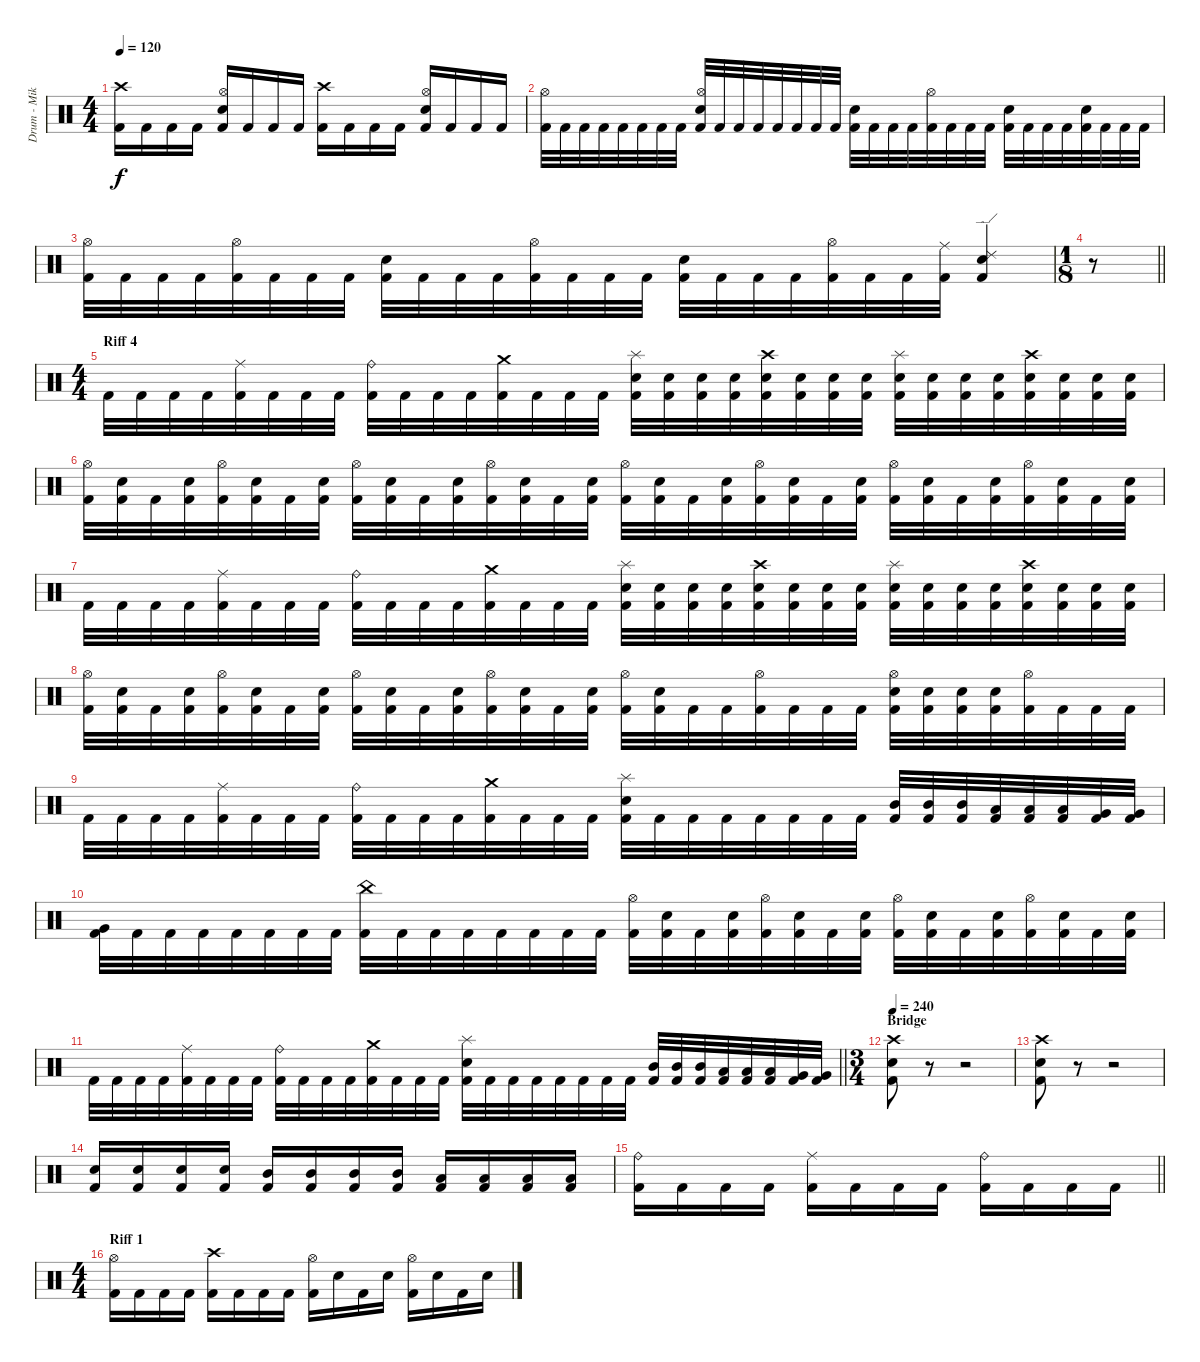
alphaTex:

\track ("Drum - Mike Collins" "Drum - Mik") {instrument percussion}
\staff {score}
\articulation defaults
\ts (4 4)
\tempo 120
\clef neutral
\ks c
("Crash high (hit)" "Kick (hit) 2").16{dy f} "Kick (hit) 2".16 "Kick (hit) 2".16 "Kick (hit) 2".16 ("Hi-Hat (open)" "Electric Snare (hit)" "Kick (hit) 2").16 "Kick (hit) 2".16 "Kick (hit) 2".16 "Kick (hit) 2".16 ("Crash high (hit)" "Kick (hit) 2").16 "Kick (hit) 2".16 "Kick (hit) 2".16 "Kick (hit) 2".16 ("Hi-Hat (open)" "Electric Snare (hit)" "Kick (hit) 2").16 "Kick (hit) 2".16 "Kick (hit) 2".16 "Kick (hit) 2".16 |
("Hi-Hat (open)" "Kick (hit) 2").32 "Kick (hit) 2".32 "Kick (hit) 2".32 "Kick (hit) 2".32 "Kick (hit) 2".32 "Kick (hit) 2".32 "Kick (hit) 2".32 "Kick (hit) 2".32 ("Hi-Hat (open)" "Electric Snare (hit)" "Kick (hit) 2").32 "Kick (hit) 2".32 "Kick (hit) 2".32 "Kick (hit) 2".32 "Kick (hit) 2".32 "Kick (hit) 2".32 "Kick (hit) 2".32 "Kick (hit) 2".32 ("Electric Snare (hit)" "Kick (hit) 2").32 "Kick (hit) 2".32 "Kick (hit) 2".32 "Kick (hit) 2".32 ("Hi-Hat (open)" "Kick (hit) 2").32 "Kick (hit) 2".32 "Kick (hit) 2".32 "Kick (hit) 2".32 ("Electric Snare (hit)" "Kick (hit) 2").32{beam Down} "Kick (hit) 2".32{beam Down} "Kick (hit) 2".32{beam Down} "Kick (hit) 2".32{beam Down} ("Electric Snare (hit)" "Kick (hit) 2").32{beam Down} "Kick (hit) 2".32{beam Down} "Kick (hit) 2".32{beam Down} "Kick (hit) 2".32{beam Down} |
("Hi-Hat (open)" "Kick (hit) 2").32 "Kick (hit) 2".32 "Kick (hit) 2".32 "Kick (hit) 2".32 ("Hi-Hat (open)" "Kick (hit) 2").32 "Kick (hit) 2".32 "Kick (hit) 2".32 "Kick (hit) 2".32 ("Electric Snare (hit)" "Kick (hit) 2").32 "Kick (hit) 2".32 "Kick (hit) 2".32 "Kick (hit) 2".32 ("Hi-Hat (open)" "Kick (hit) 2").32 "Kick (hit) 2".32 "Kick (hit) 2".32 "Kick (hit) 2".32 ("Electric Snare (hit)" "Kick (hit) 2").32 "Kick (hit) 2".32 "Kick (hit) 2".32 "Kick (hit) 2".32 ("Hi-Hat (open)" "Kick (hit) 2").32 "Kick (hit) 2".32 "Kick (hit) 2".32 ("Ride (middle)" "Kick (hit) 2").32 ("Ride (edge) 2" "Electric Snare (hit)" "Kick (hit) 2").4 |
\ts (1 8)
\barLineRight lightlight
r.8 |
\ts (4 4)
\section ("" "Riff 4")
"Kick (hit) 2".32 "Kick (hit) 2".32 "Kick (hit) 2".32 "Kick (hit) 2".32 ("Ride (middle)" "Kick (hit) 2").32 "Kick (hit) 2".32 "Kick (hit) 2".32 "Kick (hit) 2".32 ("Ride (bell)" "Kick (hit) 2").32 "Kick (hit) 2".32 "Kick (hit) 2".32 "Kick (hit) 2".32 ("Crash medium (hit)" "Kick (hit) 2").32 "Kick (hit) 2".32 "Kick (hit) 2".32 "Kick (hit) 2".32 ("Splash (hit)" "Electric Snare (hit)" "Kick (hit) 2").32 ("Electric Snare (hit)" "Kick (hit) 2").32 ("Electric Snare (hit)" "Kick (hit) 2").32 ("Electric Snare (hit)" "Kick (hit) 2").32 ("Crash high (hit)" "Electric Snare (hit)" "Kick (hit) 2").32 ("Electric Snare (hit)" "Kick (hit) 2").32 ("Electric Snare (hit)" "Kick (hit) 2").32 ("Electric Snare (hit)" "Kick (hit) 2").32 ("Splash (hit)" "Electric Snare (hit)" "Kick (hit) 2").32 ("Electric Snare (hit)" "Kick (hit) 2").32 ("Electric Snare (hit)" "Kick (hit) 2").32 ("Electric Snare (hit)" "Kick (hit) 2").32 ("Crash high (hit)" "Electric Snare (hit)" "Kick (hit) 2").32 ("Electric Snare (hit)" "Kick (hit) 2").32 ("Electric Snare (hit)" "Kick (hit) 2").32 ("Electric Snare (hit)" "Kick (hit) 2").32 |
("Hi-Hat (open)" "Kick (hit) 2").32 ("Electric Snare (hit)" "Kick (hit) 2").32 "Kick (hit) 2".32 ("Electric Snare (hit)" "Kick (hit) 2").32 ("Hi-Hat (open)" "Kick (hit) 2").32 ("Electric Snare (hit)" "Kick (hit) 2").32 "Kick (hit) 2".32 ("Electric Snare (hit)" "Kick (hit) 2").32 ("Hi-Hat (open)" "Kick (hit) 2").32 ("Electric Snare (hit)" "Kick (hit) 2").32 "Kick (hit) 2".32 ("Electric Snare (hit)" "Kick (hit) 2").32 ("Hi-Hat (open)" "Kick (hit) 2").32 ("Electric Snare (hit)" "Kick (hit) 2").32 "Kick (hit) 2".32 ("Electric Snare (hit)" "Kick (hit) 2").32 ("Hi-Hat (open)" "Kick (hit) 2").32 ("Electric Snare (hit)" "Kick (hit) 2").32 "Kick (hit) 2".32 ("Electric Snare (hit)" "Kick (hit) 2").32 ("Hi-Hat (open)" "Kick (hit) 2").32 ("Electric Snare (hit)" "Kick (hit) 2").32 "Kick (hit) 2".32 ("Electric Snare (hit)" "Kick (hit) 2").32 ("Hi-Hat (open)" "Kick (hit) 2").32 ("Electric Snare (hit)" "Kick (hit) 2").32 "Kick (hit) 2".32 ("Electric Snare (hit)" "Kick (hit) 2").32 ("Hi-Hat (open)" "Kick (hit) 2").32 ("Electric Snare (hit)" "Kick (hit) 2").32 "Kick (hit) 2".32 ("Electric Snare (hit)" "Kick (hit) 2").32 |
"Kick (hit) 2".32 "Kick (hit) 2".32 "Kick (hit) 2".32 "Kick (hit) 2".32 ("Ride (middle)" "Kick (hit) 2").32 "Kick (hit) 2".32 "Kick (hit) 2".32 "Kick (hit) 2".32 ("Ride (bell)" "Kick (hit) 2").32 "Kick (hit) 2".32 "Kick (hit) 2".32 "Kick (hit) 2".32 ("Crash medium (hit)" "Kick (hit) 2").32 "Kick (hit) 2".32 "Kick (hit) 2".32 "Kick (hit) 2".32 ("Splash (hit)" "Electric Snare (hit)" "Kick (hit) 2").32 ("Electric Snare (hit)" "Kick (hit) 2").32 ("Electric Snare (hit)" "Kick (hit) 2").32 ("Electric Snare (hit)" "Kick (hit) 2").32 ("Crash high (hit)" "Electric Snare (hit)" "Kick (hit) 2").32 ("Electric Snare (hit)" "Kick (hit) 2").32 ("Electric Snare (hit)" "Kick (hit) 2").32 ("Electric Snare (hit)" "Kick (hit) 2").32 ("Splash (hit)" "Electric Snare (hit)" "Kick (hit) 2").32 ("Electric Snare (hit)" "Kick (hit) 2").32 ("Electric Snare (hit)" "Kick (hit) 2").32 ("Electric Snare (hit)" "Kick (hit) 2").32 ("Crash high (hit)" "Electric Snare (hit)" "Kick (hit) 2").32 ("Electric Snare (hit)" "Kick (hit) 2").32 ("Electric Snare (hit)" "Kick (hit) 2").32 ("Electric Snare (hit)" "Kick (hit) 2").32 |
("Hi-Hat (open)" "Kick (hit) 2").32 ("Electric Snare (hit)" "Kick (hit) 2").32 "Kick (hit) 2".32 ("Electric Snare (hit)" "Kick (hit) 2").32 ("Hi-Hat (open)" "Kick (hit) 2").32 ("Electric Snare (hit)" "Kick (hit) 2").32 "Kick (hit) 2".32 ("Electric Snare (hit)" "Kick (hit) 2").32 ("Hi-Hat (open)" "Kick (hit) 2").32 ("Electric Snare (hit)" "Kick (hit) 2").32 "Kick (hit) 2".32 ("Electric Snare (hit)" "Kick (hit) 2").32 ("Hi-Hat (open)" "Kick (hit) 2").32 ("Electric Snare (hit)" "Kick (hit) 2").32 "Kick (hit) 2".32 ("Electric Snare (hit)" "Kick (hit) 2").32 ("Hi-Hat (open)" "Kick (hit) 2").32 ("Electric Snare (hit)" "Kick (hit) 2").32 "Kick (hit) 2".32 "Kick (hit) 2".32 ("Hi-Hat (open)" "Kick (hit) 2").32 "Kick (hit) 2".32 "Kick (hit) 2".32 "Kick (hit) 2".32 ("Hi-Hat (open)" "Electric Snare (hit)" "Kick (hit) 2").32 ("Electric Snare (hit)" "Kick (hit) 2").32 ("Electric Snare (hit)" "Kick (hit) 2").32 ("Electric Snare (hit)" "Kick (hit) 2").32 ("Hi-Hat (open)" "Kick (hit) 2").32 "Kick (hit) 2".32 "Kick (hit) 2".32 "Kick (hit) 2".32 |
"Kick (hit) 2".32 "Kick (hit) 2".32 "Kick (hit) 2".32 "Kick (hit) 2".32 ("Ride (middle)" "Kick (hit) 2").32 "Kick (hit) 2".32 "Kick (hit) 2".32 "Kick (hit) 2".32 ("Ride (bell)" "Kick (hit) 2").32 "Kick (hit) 2".32 "Kick (hit) 2".32 "Kick (hit) 2".32 ("Crash medium (hit)" "Kick (hit) 2").32 "Kick (hit) 2".32 "Kick (hit) 2".32 "Kick (hit) 2".32 ("Splash (hit)" "Electric Snare (hit)" "Kick (hit) 2").32{beam Down} "Kick (hit) 2".32{beam Down} "Kick (hit) 2".32{beam Down} "Kick (hit) 2".32{beam Down} "Kick (hit) 2".32{beam Down} "Kick (hit) 2".32{beam Down} "Kick (hit) 2".32{beam Down} "Kick (hit) 2".32{beam Down} ("Mid Tom (hit)" "Kick (hit) 2").32 ("Mid Tom (hit)" "Kick (hit) 2").32 ("Mid Tom (hit)" "Kick (hit) 2").32 ("Low Tom (hit)" "Kick (hit) 2").32 ("Low Tom (hit)" "Kick (hit) 2").32 ("Low Tom (hit)" "Kick (hit) 2").32 ("Very Low Tom (hit)" "Kick (hit) 2").32 ("Very Low Tom (hit)" "Kick (hit) 2").32 |
("Very Low Tom (hit)" "Kick (hit) 2").32{beam Down} "Kick (hit) 2".32{beam Down} "Kick (hit) 2".32{beam Down} "Kick (hit) 2".32{beam Down} "Kick (hit) 2".32{beam Down} "Kick (hit) 2".32{beam Down} "Kick (hit) 2".32{beam Down} "Kick (hit) 2".32{beam Down} ("China (hit)" "Kick (hit) 2").32 "Kick (hit) 2".32 "Kick (hit) 2".32 "Kick (hit) 2".32 "Kick (hit) 2".32 "Kick (hit) 2".32 "Kick (hit) 2".32 "Kick (hit) 2".32 ("Hi-Hat (open)" "Kick (hit) 2").32 ("Electric Snare (hit)" "Kick (hit) 2").32 "Kick (hit) 2".32 ("Electric Snare (hit)" "Kick (hit) 2").32 ("Hi-Hat (open)" "Kick (hit) 2").32 ("Electric Snare (hit)" "Kick (hit) 2").32 "Kick (hit) 2".32 ("Electric Snare (hit)" "Kick (hit) 2").32 ("Hi-Hat (open)" "Kick (hit) 2").32 ("Electric Snare (hit)" "Kick (hit) 2").32 "Kick (hit) 2".32 ("Electric Snare (hit)" "Kick (hit) 2").32 ("Hi-Hat (open)" "Kick (hit) 2").32 ("Electric Snare (hit)" "Kick (hit) 2").32 "Kick (hit) 2".32 ("Electric Snare (hit)" "Kick (hit) 2").32 |
\barLineRight lightlight "Kick (hit) 2".32 "Kick (hit) 2".32 "Kick (hit) 2".32 "Kick (hit) 2".32
("Ride (middle)" "Kick (hit) 2").32 "Kick (hit) 2".32 "Kick (hit) 2".32 "Kick (hit) 2".32 ("Ride (bell)" "Kick (hit) 2").32 "Kick (hit) 2".32 "Kick (hit) 2".32 "Kick (hit) 2".32 ("Crash medium (hit)" "Kick (hit) 2").32 "Kick (hit) 2".32 "Kick (hit) 2".32 "Kick (hit) 2".32 ("Splash (hit)" "Electric Snare (hit)" "Kick (hit) 2").32 "Kick (hit) 2".32 "Kick (hit) 2".32 "Kick (hit) 2".32 "Kick (hit) 2".32 "Kick (hit) 2".32 "Kick (hit) 2".32 "Kick (hit) 2".32 ("Mid Tom (hit)" "Kick (hit) 2").32 ("Mid Tom (hit)" "Kick (hit) 2").32 ("Mid Tom (hit)" "Kick (hit) 2").32 ("Low Tom (hit)" "Kick (hit) 2").32 ("Low Tom (hit)" "Kick (hit) 2").32 ("Low Tom (hit)" "Kick (hit) 2").32 ("Very Low Tom (hit)" "Kick (hit) 2").32 ("Very Low Tom (hit)" "Kick (hit) 2").32 |
\ts (3 4)
\section ("" "Bridge")
\tempo 240
("Crash high (hit)" "Electric Snare (hit)" "Kick (hit) 2").8 r.8 r.2 |
("Crash high (hit)" "Electric Snare (hit)" "Kick (hit) 2").8 r.8 r.2 |
("Electric Snare (hit)" "Kick (hit) 2").16 ("Electric Snare (hit)" "Kick (hit) 2").16 ("Electric Snare (hit)" "Kick (hit) 2").16 ("Electric Snare (hit)" "Kick (hit) 2").16 ("Mid Tom (hit)" "Kick (hit) 2").16 ("Mid Tom (hit)" "Kick (hit) 2").16 ("Mid Tom (hit)" "Kick (hit) 2").16 ("Mid Tom (hit)" "Kick (hit) 2").16 ("Low Tom (hit)" "Kick (hit) 2").16 ("Low Tom (hit)" "Kick (hit) 2").16 ("Low Tom (hit)" "Kick (hit) 2").16 ("Low Tom (hit)" "Kick (hit) 2").16 |
\barLineRight lightlight
("Ride (bell)" "Kick (hit) 2").16 "Kick (hit) 2".16 "Kick (hit) 2".16 "Kick (hit) 2".16 ("Ride (middle)" "Kick (hit) 2").16 "Kick (hit) 2".16 "Kick (hit) 2".16 "Kick (hit) 2".16 ("Ride (bell)" "Kick (hit) 2").16 "Kick (hit) 2".16 "Kick (hit) 2".16 "Kick (hit) 2".16 |
\ts (4 4)
\section ("" "Riff 1")
("Hi-Hat (open)" "Kick (hit) 2").16 "Kick (hit) 2".16 "Kick (hit) 2".16 "Kick (hit) 2".16 ("Crash high (hit)" "Kick (hit) 2").16 "Kick (hit) 2".16 "Kick (hit) 2".16 "Kick (hit) 2".16 ("Hi-Hat (open)" "Kick (hit) 2").16 "Electric Snare (hit)".16 "Kick (hit) 2".16 "Electric Snare (hit)".16 ("Hi-Hat (open)" "Kick (hit) 2").16 "Electric Snare (hit)".16 "Kick (hit) 2".16 "Electric Snare (hit)".16
